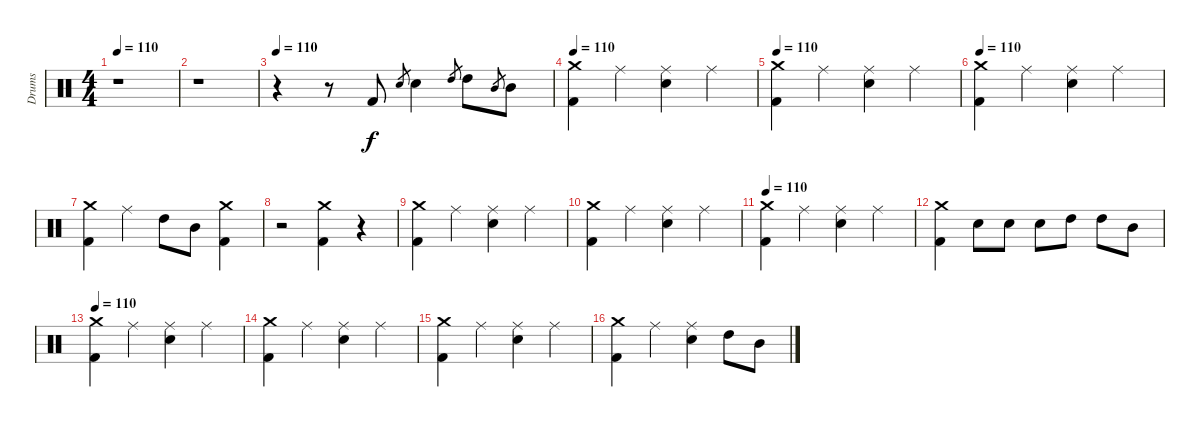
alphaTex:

\track ("Drums" "Drums") {instrument percussion}
\staff {score}
\articulation defaults
\ts (4 4)
\tempo 110
\clef neutral
\ks c
r.1{dy f} |
r.1 |
\tempo 110
r.4 r.8 "Kick (hit) 2".8 "Electric Snare (hit)".8{gr} "Electric Snare (hit)".4 "High Tom (hit)".8{gr} "High Tom (hit)".8 "Mid Tom (hit)".8{gr} "Mid Tom (hit)".8 |
\tempo 110
("Crash medium (hit)" "Kick (hit) 2").4 "Ride (middle)".4 ("Ride (middle)" "Electric Snare (hit)").4 "Ride (middle)".4 |
\tempo 110
("Crash medium (hit)" "Kick (hit) 2").4 "Ride (middle)".4 ("Ride (middle)" "Electric Snare (hit)").4 "Ride (middle)".4 |
\tempo 110
("Crash medium (hit)" "Kick (hit) 2").4 "Ride (middle)".4 ("Ride (middle)" "Electric Snare (hit)").4 "Ride (middle)".4 |
("Crash medium (hit)" "Kick (hit) 2").4 "Ride (middle)".4 "High Tom (hit)".8 "Mid Tom (hit)".8 ("Crash medium (hit)" "Kick (hit) 2").4 |
r.2 ("Crash medium (hit)" "Kick (hit) 2").4 r.4 |
("Crash medium (hit)" "Kick (hit) 2").4 "Ride (middle)".4 ("Ride (middle)" "Electric Snare (hit)").4 "Ride (middle)".4 |
("Crash medium (hit)" "Kick (hit) 2").4 "Ride (middle)".4 ("Ride (middle)" "Electric Snare (hit)").4 "Ride (middle)".4 |
\tempo 110
("Crash medium (hit)" "Kick (hit) 2").4 "Ride (middle)".4 ("Ride (middle)" "Electric Snare (hit)").4 "Ride (middle)".4 |
("Crash medium (hit)" "Kick (hit) 2").4 "Electric Snare (hit)".8 "Electric Snare (hit)".8 "Electric Snare (hit)".8 "High Tom (hit)".8 "High Tom (hit)".8 "Mid Tom (hit)".8 |
\tempo 110
("Crash medium (hit)" "Kick (hit) 2").4 "Ride (middle)".4 ("Ride (middle)" "Electric Snare (hit)").4 "Ride (middle)".4 |
("Crash medium (hit)" "Kick (hit) 2").4 "Ride (middle)".4 ("Ride (middle)" "Electric Snare (hit)").4 "Ride (middle)".4 |
("Crash medium (hit)" "Kick (hit) 2").4 "Ride (middle)".4 ("Ride (middle)" "Electric Snare (hit)").4 "Ride (middle)".4 |
("Crash medium (hit)" "Kick (hit) 2").4 "Ride (middle)".4 ("Ride (middle)" "Electric Snare (hit)").4 "High Tom (hit)".8 "Mid Tom (hit)".8
